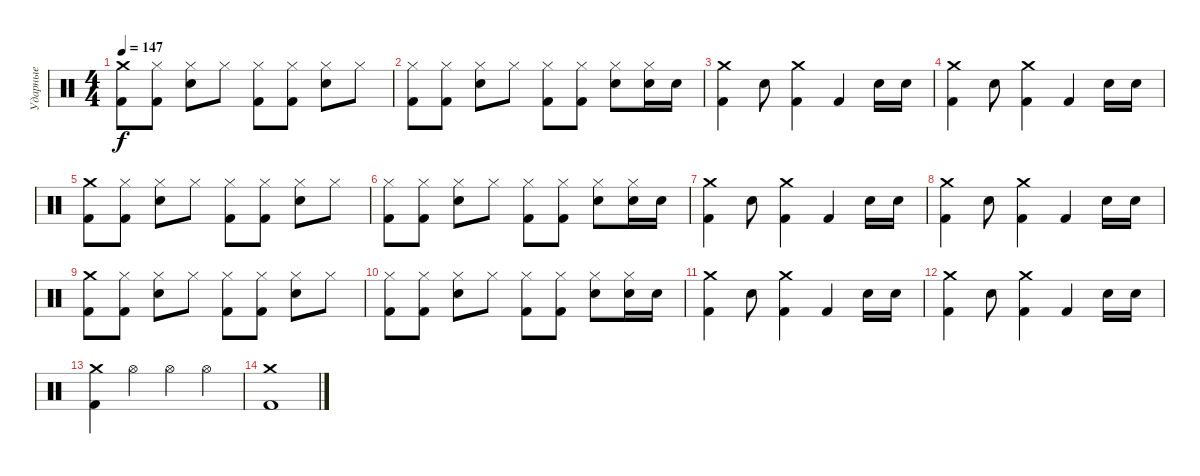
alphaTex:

\track ("Ударные" "Ударные") {instrument percussion}
\staff {score}
\articulation defaults
\ts (4 4)
\tempo 147
\clef neutral
\ks c
("Crash medium (hit)" "Kick (hit) 2").8{dy f} ("Hi-Hat (closed)" "Kick (hit) 2").8 ("Hi-Hat (closed)" "Electric Snare (hit)").8 "Hi-Hat (closed)".8 ("Hi-Hat (closed)" "Kick (hit) 2").8 ("Hi-Hat (closed)" "Kick (hit) 2").8 ("Hi-Hat (closed)" "Electric Snare (hit)").8 "Hi-Hat (closed)".8 |
("Hi-Hat (closed)" "Kick (hit) 2").8 ("Hi-Hat (closed)" "Kick (hit) 2").8 ("Hi-Hat (closed)" "Electric Snare (hit)").8 "Hi-Hat (closed)".8 ("Hi-Hat (closed)" "Kick (hit) 2").8 ("Hi-Hat (closed)" "Kick (hit) 2").8 ("Hi-Hat (closed)" "Electric Snare (hit)").8 ("Hi-Hat (closed)" "Electric Snare (hit)").16 "Electric Snare (hit)".16 |
("Crash medium (hit)" "Kick (hit) 2").4 "Electric Snare (hit)".8 ("Crash medium (hit)" "Kick (hit) 2").4 "Kick (hit) 2".4 "Electric Snare (hit)".16 "Electric Snare (hit)".16 |
("Crash medium (hit)" "Kick (hit) 2").4 "Electric Snare (hit)".8 ("Crash medium (hit)" "Kick (hit) 2").4 "Kick (hit) 2".4 "Electric Snare (hit)".16 "Electric Snare (hit)".16 |
("Crash medium (hit)" "Kick (hit) 2").8 ("Hi-Hat (closed)" "Kick (hit) 2").8 ("Hi-Hat (closed)" "Electric Snare (hit)").8 "Hi-Hat (closed)".8 ("Hi-Hat (closed)" "Kick (hit) 2").8 ("Hi-Hat (closed)" "Kick (hit) 2").8 ("Hi-Hat (closed)" "Electric Snare (hit)").8 "Hi-Hat (closed)".8 |
("Hi-Hat (closed)" "Kick (hit) 2").8 ("Hi-Hat (closed)" "Kick (hit) 2").8 ("Hi-Hat (closed)" "Electric Snare (hit)").8 "Hi-Hat (closed)".8 ("Hi-Hat (closed)" "Kick (hit) 2").8 ("Hi-Hat (closed)" "Kick (hit) 2").8 ("Hi-Hat (closed)" "Electric Snare (hit)").8 ("Hi-Hat (closed)" "Electric Snare (hit)").16 "Electric Snare (hit)".16 |
("Crash medium (hit)" "Kick (hit) 2").4 "Electric Snare (hit)".8 ("Crash medium (hit)" "Kick (hit) 2").4 "Kick (hit) 2".4 "Electric Snare (hit)".16 "Electric Snare (hit)".16 |
("Crash medium (hit)" "Kick (hit) 2").4 "Electric Snare (hit)".8 ("Crash medium (hit)" "Kick (hit) 2").4 "Kick (hit) 2".4 "Electric Snare (hit)".16 "Electric Snare (hit)".16 |
("Crash medium (hit)" "Kick (hit) 2").8 ("Hi-Hat (closed)" "Kick (hit) 2").8 ("Hi-Hat (closed)" "Electric Snare (hit)").8 "Hi-Hat (closed)".8 ("Hi-Hat (closed)" "Kick (hit) 2").8 ("Hi-Hat (closed)" "Kick (hit) 2").8 ("Hi-Hat (closed)" "Electric Snare (hit)").8 "Hi-Hat (closed)".8 |
("Hi-Hat (closed)" "Kick (hit) 2").8 ("Hi-Hat (closed)" "Kick (hit) 2").8 ("Hi-Hat (closed)" "Electric Snare (hit)").8 "Hi-Hat (closed)".8 ("Hi-Hat (closed)" "Kick (hit) 2").8 ("Hi-Hat (closed)" "Kick (hit) 2").8 ("Hi-Hat (closed)" "Electric Snare (hit)").8 ("Hi-Hat (closed)" "Electric Snare (hit)").16 "Electric Snare (hit)".16 |
("Crash medium (hit)" "Kick (hit) 2").4 "Electric Snare (hit)".8 ("Crash medium (hit)" "Kick (hit) 2").4 "Kick (hit) 2".4 "Electric Snare (hit)".16 "Electric Snare (hit)".16 |
("Crash medium (hit)" "Kick (hit) 2").4 "Electric Snare (hit)".8 ("Crash medium (hit)" "Kick (hit) 2").4 "Kick (hit) 2".4 "Electric Snare (hit)".16 "Electric Snare (hit)".16 |
("Crash medium (hit)" "Kick (hit) 2").4 "Hi-Hat (open)".4 "Hi-Hat (open)".4 "Hi-Hat (open)".4 |
("Crash medium (hit)" "Kick (hit) 2").1
